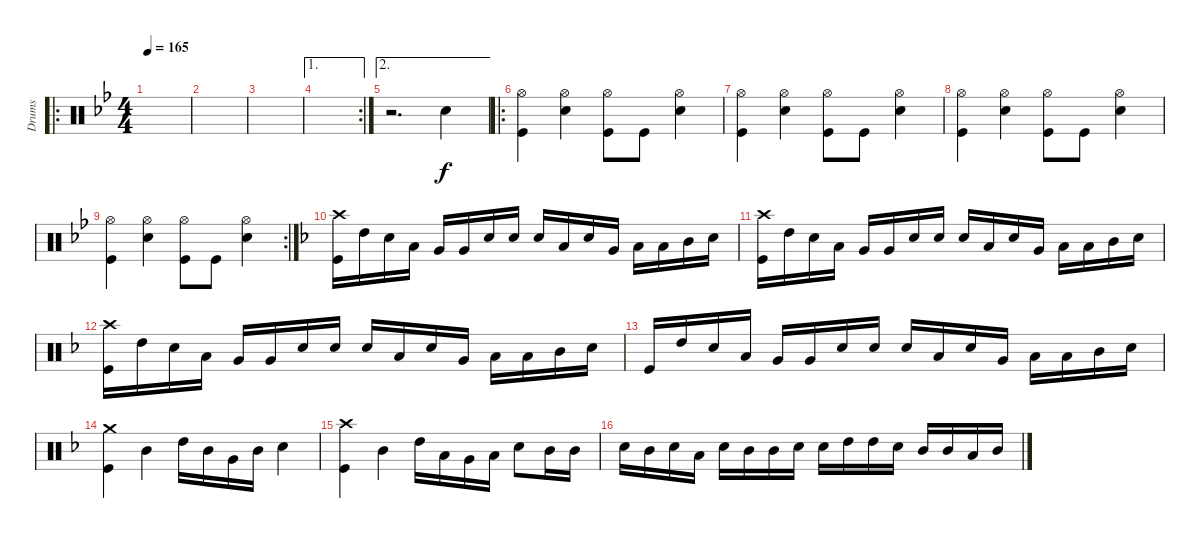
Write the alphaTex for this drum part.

\track ("Drums" "Drums") {instrument percussion}
\staff {score}
\articulation defaults
\ro
\ts (4 4)
\tempo 165
\clef neutral
\ks bb
|
|
|
\ae 1
\rc 2
|
\ae 2
r.2{d} "Snare (hit) 2".4 |
\ro
("Hi-Hat (open)" "Kick (hit)").4 ("Hi-Hat (open)" "Snare (hit) 2").4 ("Hi-Hat (open)" "Kick (hit)").8 "Kick (hit)".8 ("Hi-Hat (open)" "Snare (hit) 2").4 |
("Hi-Hat (open)" "Kick (hit)").4 ("Hi-Hat (open)" "Snare (hit) 2").4 ("Hi-Hat (open)" "Kick (hit)").8 "Kick (hit)".8 ("Hi-Hat (open)" "Snare (hit) 2").4 |
("Hi-Hat (open)" "Kick (hit)").4 ("Hi-Hat (open)" "Snare (hit) 2").4 ("Hi-Hat (open)" "Kick (hit)").8 "Kick (hit)".8 ("Hi-Hat (open)" "Snare (hit) 2").4 |
\rc 2
("Hi-Hat (open)" "Kick (hit)").4 ("Hi-Hat (open)" "Snare (hit) 2").4 ("Hi-Hat (open)" "Kick (hit)").8 "Kick (hit)".8 ("Hi-Hat (open)" "Snare (hit) 2").4 |
\ks f
("Crash high (hit)" "Kick (hit)").16 "High Tom (hit)".16 "Snare (hit) 2".16 "Low Tom (hit)".16 "Very Low Tom (hit)".16 "Very Low Tom (hit)".16 "Snare (hit) 2".16 "Snare (hit) 2".16 "Snare (hit) 2".16 "Low Floor Tom (hit)".16 "Snare (hit) 2".16 "Very Low Tom (hit)".16 "Low Tom (hit)".16 "Low Tom (hit)".16 "Mid Tom (hit)".16 "Snare (hit) 2".16 |
("Crash high (hit)" "Kick (hit)").16 "High Tom (hit)".16 "Snare (hit) 2".16 "Low Tom (hit)".16 "Very Low Tom (hit)".16 "Very Low Tom (hit)".16 "Snare (hit) 2".16 "Snare (hit) 2".16 "Snare (hit) 2".16 "Low Floor Tom (hit)".16 "Snare (hit) 2".16 "Very Low Tom (hit)".16 "Low Tom (hit)".16 "Low Tom (hit)".16 "Mid Tom (hit)".16 "Snare (hit) 2".16 |
("Crash high (hit)" "Kick (hit)").16 "High Tom (hit)".16 "Snare (hit) 2".16 "Low Tom (hit)".16 "Very Low Tom (hit)".16 "Very Low Tom (hit)".16 "Snare (hit) 2".16 "Snare (hit) 2".16 "Snare (hit) 2".16 "Low Floor Tom (hit)".16 "Snare (hit) 2".16 "Very Low Tom (hit)".16 "Low Tom (hit)".16 "Low Tom (hit)".16 "Mid Tom (hit)".16 "Snare (hit) 2".16 |
"Kick (hit)".16 "High Tom (hit)".16 "Snare (hit) 2".16 "Low Tom (hit)".16 "Very Low Tom (hit)".16 "Very Low Tom (hit)".16 "Snare (hit) 2".16 "Snare (hit) 2".16 "Snare (hit) 2".16 "Low Floor Tom (hit)".16 "Snare (hit) 2".16 "Very Low Tom (hit)".16 "Low Tom (hit)".16 "Low Tom (hit)".16 "Mid Tom (hit)".16 "Snare (hit) 2".16 |
("Crash medium (hit)" "Kick (hit)").4 "Mid Tom (hit)".4 "High Tom (hit)".16 "Mid Tom (hit)".16 "Very Low Tom (hit)".16 "Mid Tom (hit)".16 "Snare (hit) 2".4 |
("Crash high (hit)" "Kick (hit)").4 "Mid Tom (hit)".4 "High Tom (hit)".16 "Low Tom (hit)".16 "Very Low Tom (hit)".16 "Low Tom (hit)".16 "Snare (hit) 2".8 "Mid Tom (hit)".16 "Mid Tom (hit)".16 |
"Snare (hit) 2".16 "Mid Tom (hit)".16 "Snare (hit) 2".16 "Low Tom (hit)".16 "Snare (hit) 2".16 "Mid Tom (hit)".16 "Mid Tom (hit)".16 "Snare (hit) 2".16 "Snare (hit) 2".16 "High Tom (hit)".16 "High Tom (hit)".16 "Snare (hit) 2".16 "Mid Tom (hit)".16 "Mid Tom (hit)".16 "Low Tom (hit)".16 "Mid Tom (hit)".16
